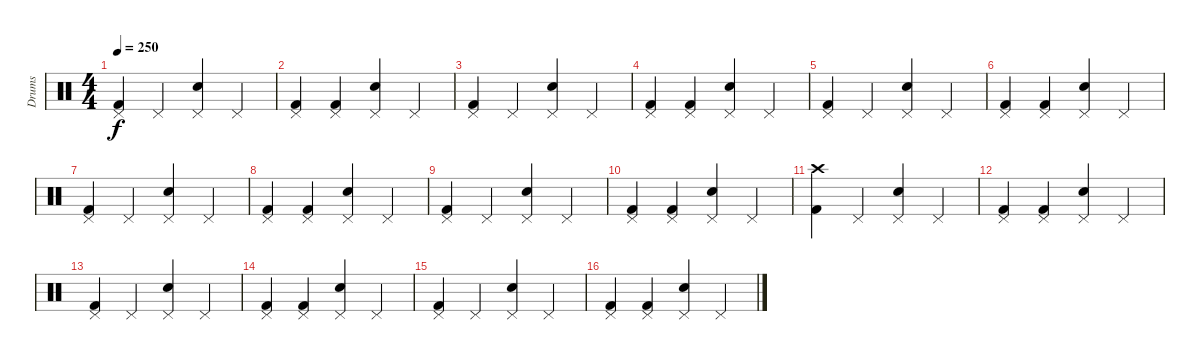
\track ("Drums" "Drums") {instrument percussion}
\staff {score}
\articulation defaults
\ts (4 4)
\tempo 250
\clef neutral
\ks c
("Pedal Hi-Hat (hit)" "Kick (hit) 2").4{dy f} "Pedal Hi-Hat (hit)".4 ("Pedal Hi-Hat (hit)" "Electric Snare (hit)").4 "Pedal Hi-Hat (hit)".4 |
("Pedal Hi-Hat (hit)" "Kick (hit) 2").4 ("Pedal Hi-Hat (hit)" "Kick (hit) 2").4 ("Pedal Hi-Hat (hit)" "Electric Snare (hit)").4 "Pedal Hi-Hat (hit)".4 |
("Pedal Hi-Hat (hit)" "Kick (hit) 2").4 "Pedal Hi-Hat (hit)".4 ("Pedal Hi-Hat (hit)" "Electric Snare (hit)").4 "Pedal Hi-Hat (hit)".4 |
("Pedal Hi-Hat (hit)" "Kick (hit) 2").4 ("Pedal Hi-Hat (hit)" "Kick (hit) 2").4 ("Pedal Hi-Hat (hit)" "Electric Snare (hit)").4 "Pedal Hi-Hat (hit)".4 |
("Pedal Hi-Hat (hit)" "Kick (hit) 2").4 "Pedal Hi-Hat (hit)".4 ("Pedal Hi-Hat (hit)" "Electric Snare (hit)").4 "Pedal Hi-Hat (hit)".4 |
("Pedal Hi-Hat (hit)" "Kick (hit) 2").4 ("Pedal Hi-Hat (hit)" "Kick (hit) 2").4 ("Pedal Hi-Hat (hit)" "Electric Snare (hit)").4 "Pedal Hi-Hat (hit)".4 |
("Pedal Hi-Hat (hit)" "Kick (hit) 2").4 "Pedal Hi-Hat (hit)".4 ("Pedal Hi-Hat (hit)" "Electric Snare (hit)").4 "Pedal Hi-Hat (hit)".4 |
("Pedal Hi-Hat (hit)" "Kick (hit) 2").4 ("Pedal Hi-Hat (hit)" "Kick (hit) 2").4 ("Pedal Hi-Hat (hit)" "Electric Snare (hit)").4 "Pedal Hi-Hat (hit)".4 |
("Pedal Hi-Hat (hit)" "Kick (hit) 2").4 "Pedal Hi-Hat (hit)".4 ("Pedal Hi-Hat (hit)" "Electric Snare (hit)").4 "Pedal Hi-Hat (hit)".4 |
("Pedal Hi-Hat (hit)" "Kick (hit) 2").4 ("Pedal Hi-Hat (hit)" "Kick (hit) 2").4 ("Pedal Hi-Hat (hit)" "Electric Snare (hit)").4 "Pedal Hi-Hat (hit)".4 |
("Kick (hit) 2" "Crash high (hit)").4 "Pedal Hi-Hat (hit)".4 ("Pedal Hi-Hat (hit)" "Electric Snare (hit)").4 "Pedal Hi-Hat (hit)".4 |
("Pedal Hi-Hat (hit)" "Kick (hit) 2").4 ("Pedal Hi-Hat (hit)" "Kick (hit) 2").4 ("Pedal Hi-Hat (hit)" "Electric Snare (hit)").4 "Pedal Hi-Hat (hit)".4 |
("Pedal Hi-Hat (hit)" "Kick (hit) 2").4 "Pedal Hi-Hat (hit)".4 ("Pedal Hi-Hat (hit)" "Electric Snare (hit)").4 "Pedal Hi-Hat (hit)".4 |
("Pedal Hi-Hat (hit)" "Kick (hit) 2").4 ("Pedal Hi-Hat (hit)" "Kick (hit) 2").4 ("Pedal Hi-Hat (hit)" "Electric Snare (hit)").4 "Pedal Hi-Hat (hit)".4 |
("Pedal Hi-Hat (hit)" "Kick (hit) 2").4 "Pedal Hi-Hat (hit)".4 ("Pedal Hi-Hat (hit)" "Electric Snare (hit)").4 "Pedal Hi-Hat (hit)".4 |
("Pedal Hi-Hat (hit)" "Kick (hit) 2").4 ("Pedal Hi-Hat (hit)" "Kick (hit) 2").4 ("Pedal Hi-Hat (hit)" "Electric Snare (hit)").4 "Pedal Hi-Hat (hit)".4
